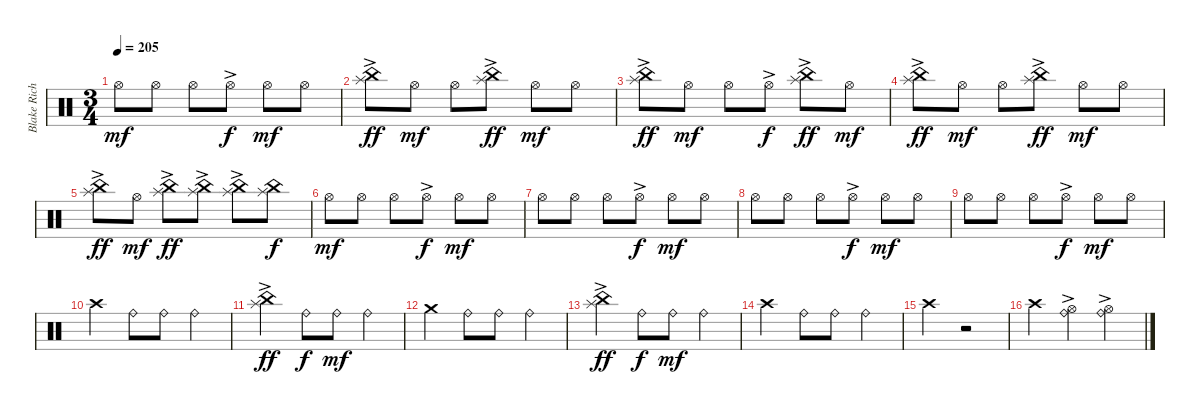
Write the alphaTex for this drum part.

\track ("Blake Richardson Drums" "Blake Rich") {instrument percussion}
\staff {score}
\articulation defaults
\ts (3 4)
\tempo 205
\clef neutral
\ks c "Hi-Hat (open)".8{dy mf} "Hi-Hat (open)".8 "Hi-Hat (open)".8 "Hi-Hat (open)"{ac}.8{dy f} "Hi-Hat (open)".8{dy mf} "Hi-Hat (open)".8
|
("Splash (hit)"{ac} "China (hit)").8{dy ff} "Hi-Hat (open)".8{dy mf} "Hi-Hat (open)".8 ("Splash (hit)"{ac} "China (hit)").8{dy ff} "Hi-Hat (open)".8{dy mf} "Hi-Hat (open)".8 |
("Splash (hit)"{ac} "China (hit)").8{dy ff} "Hi-Hat (open)".8{dy mf} "Hi-Hat (open)".8 "Hi-Hat (open)"{ac}.8{dy f} ("Splash (hit)"{ac} "China (hit)").8{dy ff} "Hi-Hat (open)".8{dy mf} |
("Splash (hit)"{ac} "China (hit)").8{dy ff} "Hi-Hat (open)".8{dy mf} "Hi-Hat (open)".8 ("Splash (hit)"{ac} "China (hit)").8{dy ff} "Hi-Hat (open)".8{dy mf} "Hi-Hat (open)".8 |
("Splash (hit)"{ac} "China (hit)").8{dy ff} "Hi-Hat (open)".8{dy mf} ("Splash (hit)"{ac} "China (hit)").8{dy ff} ("Splash (hit)"{ac} "China (hit)").8 ("Splash (hit)"{ac} "China (hit)").8 ("Splash (hit)" "China (hit)").8{dy f} |
"Hi-Hat (open)".8{dy mf} "Hi-Hat (open)".8 "Hi-Hat (open)".8 "Hi-Hat (open)"{ac}.8{dy f} "Hi-Hat (open)".8{dy mf} "Hi-Hat (open)".8 |
"Hi-Hat (open)".8 "Hi-Hat (open)".8 "Hi-Hat (open)".8 "Hi-Hat (open)"{ac}.8{dy f} "Hi-Hat (open)".8{dy mf} "Hi-Hat (open)".8 |
"Hi-Hat (open)".8 "Hi-Hat (open)".8 "Hi-Hat (open)".8 "Hi-Hat (open)"{ac}.8{dy f} "Hi-Hat (open)".8{dy mf} "Hi-Hat (open)".8 |
"Hi-Hat (open)".8 "Hi-Hat (open)".8 "Hi-Hat (open)".8 "Hi-Hat (open)"{ac}.8{dy f} "Hi-Hat (open)".8{dy mf} "Hi-Hat (open)".8 |
"Crash high (hit)".4 "Ride (bell)".8 "Ride (bell)".8 "Ride (bell)".4 |
("China (hit)" "Splash (hit)"{ac}).4{dy ff} "Ride (bell)".8{dy f} "Ride (bell)".8{dy mf} "Ride (bell)".4 |
"Crash medium (hit)".4 "Ride (bell)".8 "Ride (bell)".8 "Ride (bell)".4 |
("China (hit)" "Splash (hit)"{ac}).4{dy ff} "Ride (bell)".8{dy f} "Ride (bell)".8{dy mf} "Ride (bell)".4 |
"Crash high (hit)".4 "Ride (bell)".8 "Ride (bell)".8 "Ride (bell)".4 |
"Crash high (hit)".4 r.2 |
"Crash high (hit)".4 ("Hi-Hat (open)" "Ride (bell)"{ac}).4 ("Hi-Hat (open)" "Ride (bell)"{ac}).4
